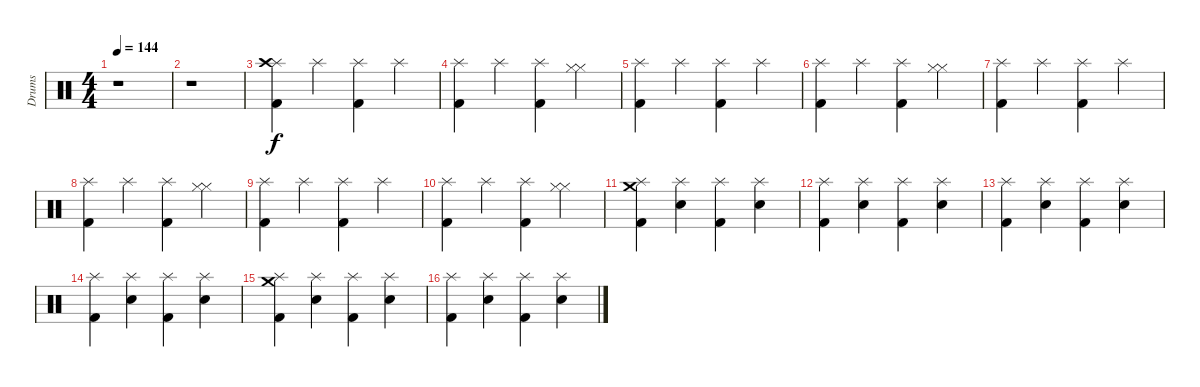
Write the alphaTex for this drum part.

\track ("Drums" "Drums") {instrument percussion}
\staff {score}
\articulation defaults
\ts (4 4)
\tempo 144
\clef neutral
\ks c
r.1{dy f} |
r.1 |
("Splash (hit)" "Crash high (hit)" "Kick (hit) 2").4 "Splash (hit)".4 ("Splash (hit)" "Kick (hit) 2").4 "Splash (hit)".4 |
("Splash (hit)" "Kick (hit) 2").4 "Splash (hit)".4 ("Splash (hit)" "Kick (hit) 2").4 ("Hi-Hat (closed)" "Hi-Hat (closed)").4 |
("Splash (hit)" "Kick (hit) 2").4 "Splash (hit)".4 ("Splash (hit)" "Kick (hit) 2").4 "Splash (hit)".4 |
("Splash (hit)" "Kick (hit) 2").4 "Splash (hit)".4 ("Splash (hit)" "Kick (hit) 2").4 ("Hi-Hat (closed)" "Hi-Hat (closed)").4 |
("Splash (hit)" "Kick (hit) 2").4 "Splash (hit)".4 ("Splash (hit)" "Kick (hit) 2").4 "Splash (hit)".4 |
("Splash (hit)" "Kick (hit) 2").4 "Splash (hit)".4 ("Splash (hit)" "Kick (hit) 2").4 ("Hi-Hat (closed)" "Hi-Hat (closed)").4 |
("Splash (hit)" "Kick (hit) 2").4 "Splash (hit)".4 ("Splash (hit)" "Kick (hit) 2").4 "Splash (hit)".4 |
("Splash (hit)" "Kick (hit) 2").4 "Splash (hit)".4 ("Splash (hit)" "Kick (hit) 2").4 ("Hi-Hat (closed)" "Hi-Hat (closed)").4 |
("Splash (hit)" "Crash medium (hit)" "Kick (hit) 2").4 ("Splash (hit)" "Snare (hit) 2").4 ("Splash (hit)" "Kick (hit) 2").4 ("Splash (hit)" "Snare (hit) 2").4 |
("Splash (hit)" "Kick (hit) 2").4 ("Splash (hit)" "Snare (hit) 2").4 ("Splash (hit)" "Kick (hit) 2").4 ("Splash (hit)" "Snare (hit) 2").4 |
("Splash (hit)" "Kick (hit) 2").4 ("Splash (hit)" "Snare (hit) 2").4 ("Splash (hit)" "Kick (hit) 2").4 ("Splash (hit)" "Snare (hit) 2").4 |
("Splash (hit)" "Kick (hit) 2").4 ("Splash (hit)" "Snare (hit) 2").4 ("Splash (hit)" "Kick (hit) 2").4 ("Splash (hit)" "Snare (hit) 2").4 |
("Splash (hit)" "Crash medium (hit)" "Kick (hit) 2").4 ("Splash (hit)" "Snare (hit) 2").4 ("Splash (hit)" "Kick (hit) 2").4 ("Splash (hit)" "Snare (hit) 2").4 |
("Splash (hit)" "Kick (hit) 2").4 ("Splash (hit)" "Snare (hit) 2").4 ("Splash (hit)" "Kick (hit) 2").4 ("Splash (hit)" "Snare (hit) 2").4
